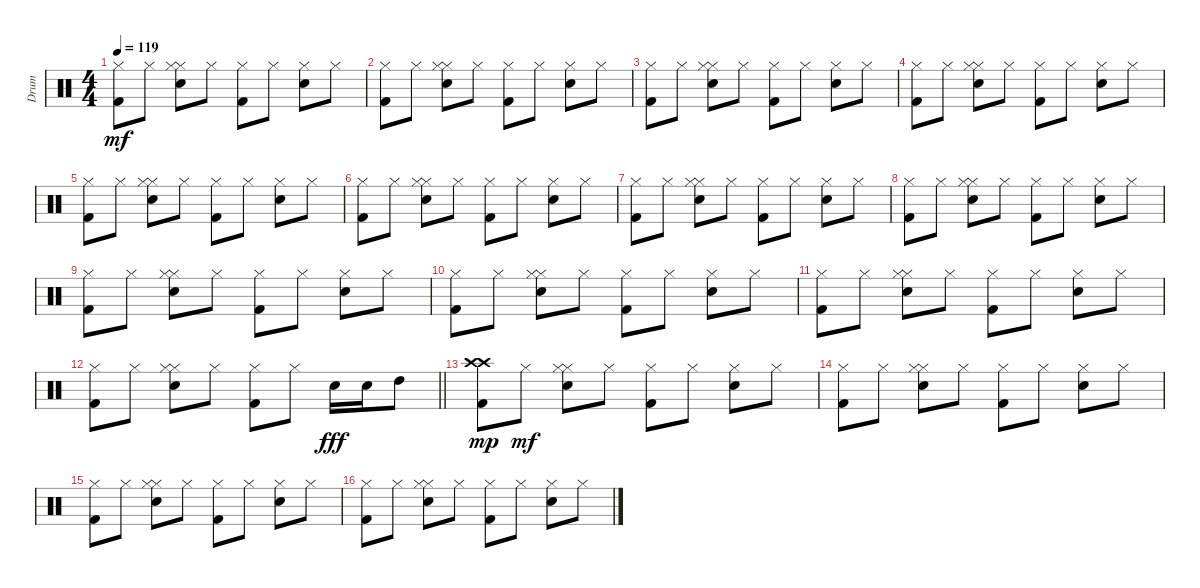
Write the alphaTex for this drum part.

\track ("Drum " "Drum ") {instrument percussion}
\staff {score}
\articulation defaults
\ts (4 4)
\tempo 119
\clef neutral
\ks c
("Hi-Hat (closed)" "Kick (hit) 2").8{dy mf} "Hi-Hat (closed)".8 ("Hi-Hat (closed)" "Hi-Hat (closed)" "Snare (hit) 2").8 "Hi-Hat (closed)".8 ("Hi-Hat (closed)" "Kick (hit) 2").8 "Hi-Hat (closed)".8 ("Hi-Hat (closed)" "Snare (hit) 2").8 "Hi-Hat (closed)".8 |
("Hi-Hat (closed)" "Kick (hit) 2").8 "Hi-Hat (closed)".8 ("Hi-Hat (closed)" "Hi-Hat (closed)" "Snare (hit) 2").8 "Hi-Hat (closed)".8 ("Hi-Hat (closed)" "Kick (hit) 2").8 "Hi-Hat (closed)".8 ("Hi-Hat (closed)" "Snare (hit) 2").8 "Hi-Hat (closed)".8 |
("Hi-Hat (closed)" "Kick (hit) 2").8 "Hi-Hat (closed)".8 ("Hi-Hat (closed)" "Hi-Hat (closed)" "Snare (hit) 2").8 "Hi-Hat (closed)".8 ("Hi-Hat (closed)" "Kick (hit) 2").8 "Hi-Hat (closed)".8 ("Hi-Hat (closed)" "Snare (hit) 2").8 "Hi-Hat (closed)".8 |
("Hi-Hat (closed)" "Kick (hit) 2").8 "Hi-Hat (closed)".8 ("Hi-Hat (closed)" "Hi-Hat (closed)" "Snare (hit) 2").8 "Hi-Hat (closed)".8 ("Hi-Hat (closed)" "Kick (hit) 2").8 "Hi-Hat (closed)".8 ("Hi-Hat (closed)" "Snare (hit) 2").8 "Hi-Hat (closed)".8 |
("Hi-Hat (closed)" "Kick (hit) 2").8 "Hi-Hat (closed)".8 ("Hi-Hat (closed)" "Hi-Hat (closed)" "Snare (hit) 2").8 "Hi-Hat (closed)".8 ("Hi-Hat (closed)" "Kick (hit) 2").8 "Hi-Hat (closed)".8 ("Hi-Hat (closed)" "Snare (hit) 2").8 "Hi-Hat (closed)".8 |
("Hi-Hat (closed)" "Kick (hit) 2").8 "Hi-Hat (closed)".8 ("Hi-Hat (closed)" "Hi-Hat (closed)" "Snare (hit) 2").8 "Hi-Hat (closed)".8 ("Hi-Hat (closed)" "Kick (hit) 2").8 "Hi-Hat (closed)".8 ("Hi-Hat (closed)" "Snare (hit) 2").8 "Hi-Hat (closed)".8 |
("Hi-Hat (closed)" "Kick (hit) 2").8 "Hi-Hat (closed)".8 ("Hi-Hat (closed)" "Hi-Hat (closed)" "Snare (hit) 2").8 "Hi-Hat (closed)".8 ("Hi-Hat (closed)" "Kick (hit) 2").8 "Hi-Hat (closed)".8 ("Hi-Hat (closed)" "Snare (hit) 2").8 "Hi-Hat (closed)".8 |
("Hi-Hat (closed)" "Kick (hit) 2").8 "Hi-Hat (closed)".8 ("Hi-Hat (closed)" "Hi-Hat (closed)" "Snare (hit) 2").8 "Hi-Hat (closed)".8 ("Hi-Hat (closed)" "Kick (hit) 2").8 "Hi-Hat (closed)".8 ("Hi-Hat (closed)" "Snare (hit) 2").8 "Hi-Hat (closed)".8 |
("Hi-Hat (closed)" "Kick (hit) 2").8 "Hi-Hat (closed)".8 ("Hi-Hat (closed)" "Hi-Hat (closed)" "Snare (hit) 2").8 "Hi-Hat (closed)".8 ("Hi-Hat (closed)" "Kick (hit) 2").8 "Hi-Hat (closed)".8 ("Hi-Hat (closed)" "Snare (hit) 2").8 "Hi-Hat (closed)".8 |
("Hi-Hat (closed)" "Kick (hit) 2").8 "Hi-Hat (closed)".8 ("Hi-Hat (closed)" "Hi-Hat (closed)" "Snare (hit) 2").8 "Hi-Hat (closed)".8 ("Hi-Hat (closed)" "Kick (hit) 2").8 "Hi-Hat (closed)".8 ("Hi-Hat (closed)" "Snare (hit) 2").8 "Hi-Hat (closed)".8 |
("Hi-Hat (closed)" "Kick (hit) 2").8 "Hi-Hat (closed)".8 ("Hi-Hat (closed)" "Hi-Hat (closed)" "Snare (hit) 2").8 "Hi-Hat (closed)".8 ("Hi-Hat (closed)" "Kick (hit) 2").8 "Hi-Hat (closed)".8 ("Hi-Hat (closed)" "Snare (hit) 2").8 "Hi-Hat (closed)".8 |
\barLineRight lightlight
("Hi-Hat (closed)" "Kick (hit) 2").8 "Hi-Hat (closed)".8 ("Hi-Hat (closed)" "Hi-Hat (closed)" "Snare (hit) 2").8 "Hi-Hat (closed)".8 ("Hi-Hat (closed)" "Kick (hit) 2").8 "Hi-Hat (closed)".8 "Snare (hit) 2".16{dy fff} "Snare (hit) 2".16 "High Tom (hit)".8 |
("Crash high (hit)" "Kick (hit) 2" "Crash high (hit)").8{dy mp} "Hi-Hat (closed)".8{dy mf} ("Hi-Hat (closed)" "Hi-Hat (closed)" "Snare (hit) 2").8 "Hi-Hat (closed)".8 ("Hi-Hat (closed)" "Kick (hit) 2").8 "Hi-Hat (closed)".8 ("Hi-Hat (closed)" "Snare (hit) 2").8 "Hi-Hat (closed)".8 |
("Hi-Hat (closed)" "Kick (hit) 2").8 "Hi-Hat (closed)".8 ("Hi-Hat (closed)" "Hi-Hat (closed)" "Snare (hit) 2").8 "Hi-Hat (closed)".8 ("Hi-Hat (closed)" "Kick (hit) 2").8 "Hi-Hat (closed)".8 ("Hi-Hat (closed)" "Snare (hit) 2").8 "Hi-Hat (closed)".8 |
("Hi-Hat (closed)" "Kick (hit) 2").8 "Hi-Hat (closed)".8 ("Hi-Hat (closed)" "Hi-Hat (closed)" "Snare (hit) 2").8 "Hi-Hat (closed)".8 ("Hi-Hat (closed)" "Kick (hit) 2").8 "Hi-Hat (closed)".8 ("Hi-Hat (closed)" "Snare (hit) 2").8 "Hi-Hat (closed)".8 |
("Hi-Hat (closed)" "Kick (hit) 2").8 "Hi-Hat (closed)".8 ("Hi-Hat (closed)" "Hi-Hat (closed)" "Snare (hit) 2").8 "Hi-Hat (closed)".8 ("Hi-Hat (closed)" "Kick (hit) 2").8 "Hi-Hat (closed)".8 ("Hi-Hat (closed)" "Snare (hit) 2").8 "Hi-Hat (closed)".8
